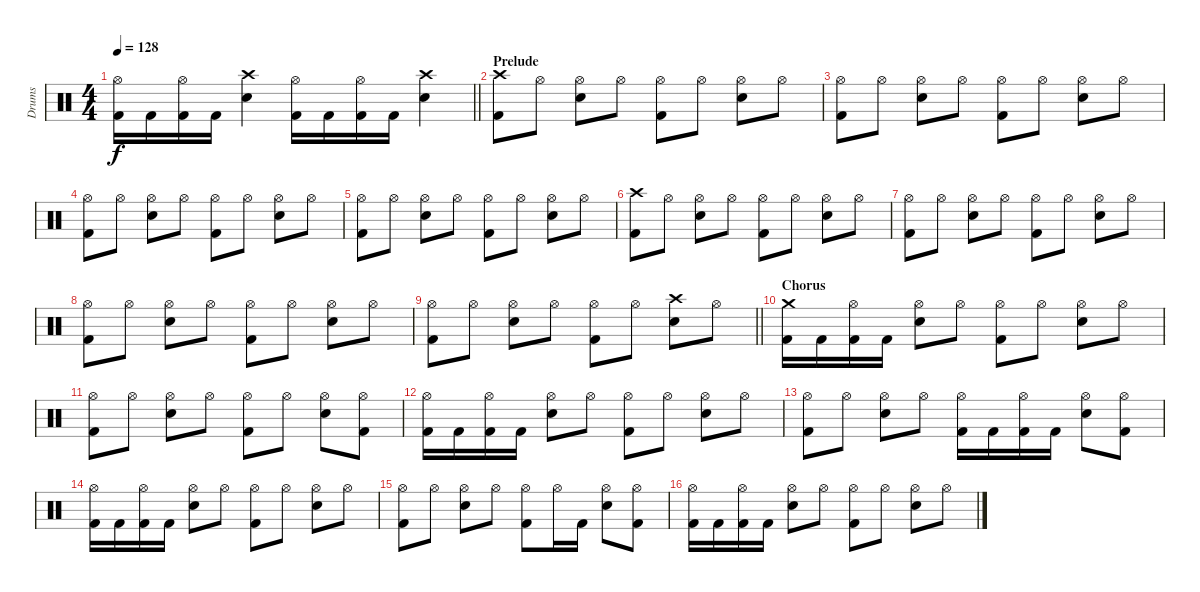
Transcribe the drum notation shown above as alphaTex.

\track ("Drums" "Drums") {instrument percussion}
\staff {score}
\articulation defaults
\ts (4 4)
\tempo 128
\clef neutral
\barLineRight lightlight
\ks c
("Hi-Hat (open)" "Kick (hit) 2").16{dy f} "Kick (hit) 2".16 ("Hi-Hat (open)" "Kick (hit) 2").16 "Kick (hit) 2".16 ("Crash high (hit)" "Snare (hit) 2").4 ("Hi-Hat (open)" "Kick (hit) 2").16 "Kick (hit) 2".16 ("Hi-Hat (open)" "Kick (hit) 2").16 "Kick (hit) 2".16 ("Crash high (hit)" "Snare (hit) 2").4 |
\section ("" "Prelude")
("Crash high (hit)" "Kick (hit) 2").8 "Hi-Hat (open)".8 ("Hi-Hat (open)" "Snare (hit) 2").8 "Hi-Hat (open)".8 ("Hi-Hat (open)" "Kick (hit) 2").8 "Hi-Hat (open)".8 ("Hi-Hat (open)" "Snare (hit) 2").8 "Hi-Hat (open)".8 |
("Hi-Hat (open)" "Kick (hit) 2").8 "Hi-Hat (open)".8 ("Hi-Hat (open)" "Snare (hit) 2").8 "Hi-Hat (open)".8 ("Hi-Hat (open)" "Kick (hit) 2").8 "Hi-Hat (open)".8 ("Hi-Hat (open)" "Snare (hit) 2").8 "Hi-Hat (open)".8 |
("Hi-Hat (open)" "Kick (hit) 2").8 "Hi-Hat (open)".8 ("Hi-Hat (open)" "Snare (hit) 2").8 "Hi-Hat (open)".8 ("Hi-Hat (open)" "Kick (hit) 2").8 "Hi-Hat (open)".8 ("Hi-Hat (open)" "Snare (hit) 2").8 "Hi-Hat (open)".8 |
("Hi-Hat (open)" "Kick (hit) 2").8 "Hi-Hat (open)".8 ("Hi-Hat (open)" "Snare (hit) 2").8 "Hi-Hat (open)".8 ("Hi-Hat (open)" "Kick (hit) 2").8 "Hi-Hat (open)".8 ("Hi-Hat (open)" "Snare (hit) 2").8 "Hi-Hat (open)".8 |
("Crash high (hit)" "Kick (hit) 2").8 "Hi-Hat (open)".8 ("Hi-Hat (open)" "Snare (hit) 2").8 "Hi-Hat (open)".8 ("Hi-Hat (open)" "Kick (hit) 2").8 "Hi-Hat (open)".8 ("Hi-Hat (open)" "Snare (hit) 2").8 "Hi-Hat (open)".8 |
("Hi-Hat (open)" "Kick (hit) 2").8 "Hi-Hat (open)".8 ("Hi-Hat (open)" "Snare (hit) 2").8 "Hi-Hat (open)".8 ("Hi-Hat (open)" "Kick (hit) 2").8 "Hi-Hat (open)".8 ("Hi-Hat (open)" "Snare (hit) 2").8 "Hi-Hat (open)".8 |
("Hi-Hat (open)" "Kick (hit) 2").8 "Hi-Hat (open)".8 ("Hi-Hat (open)" "Snare (hit) 2").8 "Hi-Hat (open)".8 ("Hi-Hat (open)" "Kick (hit) 2").8 "Hi-Hat (open)".8 ("Hi-Hat (open)" "Snare (hit) 2").8 "Hi-Hat (open)".8 |
\barLineRight lightlight
("Hi-Hat (open)" "Kick (hit) 2").8 "Hi-Hat (open)".8 ("Hi-Hat (open)" "Snare (hit) 2").8 "Hi-Hat (open)".8 ("Hi-Hat (open)" "Kick (hit) 2").8 "Hi-Hat (open)".8 ("Crash high (hit)" "Snare (hit) 2").8 "Hi-Hat (open)".8 |
\section ("" "Chorus")
("Crash medium (hit)" "Kick (hit) 2").16 "Kick (hit) 2".16 ("Hi-Hat (open)" "Kick (hit) 2").16 "Kick (hit) 2".16 ("Hi-Hat (open)" "Snare (hit) 2").8 "Hi-Hat (open)".8 ("Hi-Hat (open)" "Kick (hit) 2").8 "Hi-Hat (open)".8 ("Hi-Hat (open)" "Snare (hit) 2").8 "Hi-Hat (open)".8 |
("Hi-Hat (open)" "Kick (hit) 2").8 "Hi-Hat (open)".8 ("Hi-Hat (open)" "Snare (hit) 2").8 "Hi-Hat (open)".8 ("Hi-Hat (open)" "Kick (hit) 2").8 "Hi-Hat (open)".8 ("Hi-Hat (open)" "Snare (hit) 2").8 ("Hi-Hat (open)" "Kick (hit) 2").8 |
("Hi-Hat (open)" "Kick (hit) 2").16 "Kick (hit) 2".16 ("Hi-Hat (open)" "Kick (hit) 2").16 "Kick (hit) 2".16 ("Hi-Hat (open)" "Snare (hit) 2").8 "Hi-Hat (open)".8 ("Hi-Hat (open)" "Kick (hit) 2").8 "Hi-Hat (open)".8 ("Hi-Hat (open)" "Snare (hit) 2").8 "Hi-Hat (open)".8 |
("Hi-Hat (open)" "Kick (hit) 2").8 "Hi-Hat (open)".8 ("Hi-Hat (open)" "Snare (hit) 2").8 "Hi-Hat (open)".8 ("Hi-Hat (open)" "Kick (hit) 2").16 "Kick (hit) 2".16 ("Hi-Hat (open)" "Kick (hit) 2").16 "Kick (hit) 2".16 ("Hi-Hat (open)" "Snare (hit) 2").8 ("Hi-Hat (open)" "Kick (hit) 2").8 |
("Hi-Hat (open)" "Kick (hit) 2").16 "Kick (hit) 2".16 ("Hi-Hat (open)" "Kick (hit) 2").16 "Kick (hit) 2".16 ("Hi-Hat (open)" "Snare (hit) 2").8 "Hi-Hat (open)".8 ("Hi-Hat (open)" "Kick (hit) 2").8 "Hi-Hat (open)".8 ("Hi-Hat (open)" "Snare (hit) 2").8 "Hi-Hat (open)".8 |
("Hi-Hat (open)" "Kick (hit) 2").8 "Hi-Hat (open)".8 ("Hi-Hat (open)" "Snare (hit) 2").8 "Hi-Hat (open)".8 ("Hi-Hat (open)" "Kick (hit) 2").8 "Hi-Hat (open)".16 "Kick (hit) 2".16 ("Hi-Hat (open)" "Snare (hit) 2").8 ("Hi-Hat (open)" "Kick (hit) 2").8 |
("Hi-Hat (open)" "Kick (hit) 2").16 "Kick (hit) 2".16 ("Hi-Hat (open)" "Kick (hit) 2").16 "Kick (hit) 2".16 ("Hi-Hat (open)" "Snare (hit) 2").8 "Hi-Hat (open)".8 ("Hi-Hat (open)" "Kick (hit) 2").8 "Hi-Hat (open)".8 ("Hi-Hat (open)" "Snare (hit) 2").8 "Hi-Hat (open)".8
